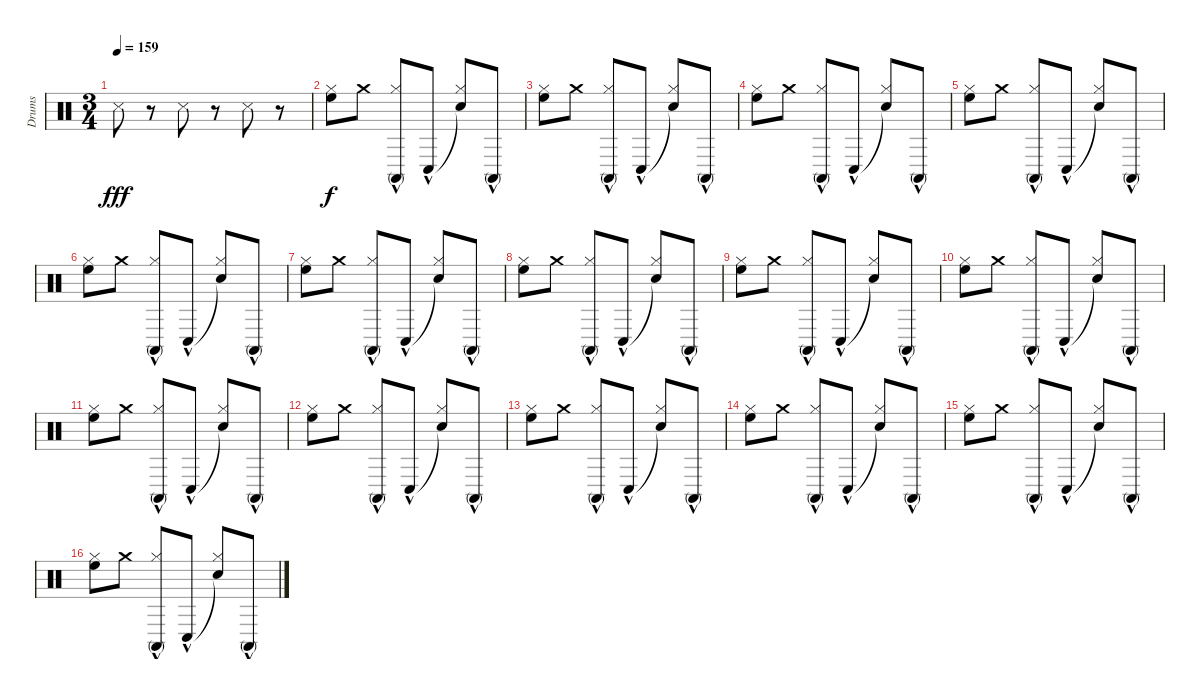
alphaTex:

\track ("Drums" "Drums") {instrument percussion}
\staff {score}
\articulation defaults
\ts (3 4)
\tempo 159
\clef neutral
\ks c "Snare (side stick) 3".8{dy fff}
r.8 "Snare (side stick) 3".8 r.8 "Snare (side stick) 3".8 r.8 |
("High Floor Tom (hit)" "Hi-Hat (closed)").8{dy f} "Crash medium (hit)".8 ("Conga high (mute)"{hac} "Hi-Hat (closed)").8 "Conga low (hit)"{hac}.8 ("Snare (hit)"{t} "Hi-Hat (closed)").8 "Conga high (mute)"{hac}.8 |
("High Floor Tom (hit)" "Hi-Hat (closed)").8 "Crash medium (hit)".8 ("Conga high (mute)"{hac} "Hi-Hat (closed)").8 "Conga low (hit)"{hac}.8 ("Snare (hit)"{t} "Hi-Hat (closed)").8 "Conga high (mute)"{hac}.8 |
("High Floor Tom (hit)" "Hi-Hat (closed)").8 "Crash medium (hit)".8 ("Conga high (mute)"{hac} "Hi-Hat (closed)").8 "Conga low (hit)"{hac}.8 ("Snare (hit)"{t} "Hi-Hat (closed)").8 "Conga high (mute)"{hac}.8 |
("High Floor Tom (hit)" "Hi-Hat (closed)").8 "Crash medium (hit)".8 ("Conga high (mute)"{hac} "Hi-Hat (closed)").8 "Conga low (hit)"{hac}.8 ("Snare (hit)"{t} "Hi-Hat (closed)").8 "Conga high (mute)"{hac}.8 |
("High Floor Tom (hit)" "Hi-Hat (closed)").8 "Crash medium (hit)".8 ("Conga high (mute)"{hac} "Hi-Hat (closed)").8 "Conga low (hit)"{hac}.8 ("Snare (hit)"{t} "Hi-Hat (closed)").8 "Conga high (mute)"{hac}.8 |
("High Floor Tom (hit)" "Hi-Hat (closed)").8 "Crash medium (hit)".8 ("Conga high (mute)"{hac} "Hi-Hat (closed)").8 "Conga low (hit)"{hac}.8 ("Snare (hit)"{t} "Hi-Hat (closed)").8 "Conga high (mute)"{hac}.8 |
("High Floor Tom (hit)" "Hi-Hat (closed)").8 "Crash medium (hit)".8 ("Conga high (mute)"{hac} "Hi-Hat (closed)").8 "Conga low (hit)"{hac}.8 ("Snare (hit)"{t} "Hi-Hat (closed)").8 "Conga high (mute)"{hac}.8 |
("High Floor Tom (hit)" "Hi-Hat (closed)").8 "Crash medium (hit)".8 ("Conga high (mute)"{hac} "Hi-Hat (closed)").8 "Conga low (hit)"{hac}.8 ("Snare (hit)"{t} "Hi-Hat (closed)").8 "Conga high (mute)"{hac}.8 |
("High Floor Tom (hit)" "Hi-Hat (closed)").8 "Crash medium (hit)".8 ("Conga high (mute)"{hac} "Hi-Hat (closed)").8 "Conga low (hit)"{hac}.8 ("Snare (hit)"{t} "Hi-Hat (closed)").8 "Conga high (mute)"{hac}.8 |
("High Floor Tom (hit)" "Hi-Hat (closed)").8 "Crash medium (hit)".8 ("Conga high (mute)"{hac} "Hi-Hat (closed)").8 "Conga low (hit)"{hac}.8 ("Snare (hit)"{t} "Hi-Hat (closed)").8 "Conga high (mute)"{hac}.8 |
("High Floor Tom (hit)" "Hi-Hat (closed)").8 "Crash medium (hit)".8 ("Conga high (mute)"{hac} "Hi-Hat (closed)").8 "Conga low (hit)"{hac}.8 ("Snare (hit)"{t} "Hi-Hat (closed)").8 "Conga high (mute)"{hac}.8 |
("High Floor Tom (hit)" "Hi-Hat (closed)").8 "Crash medium (hit)".8 ("Conga high (mute)"{hac} "Hi-Hat (closed)").8 "Conga low (hit)"{hac}.8 ("Snare (hit)"{t} "Hi-Hat (closed)").8 "Conga high (mute)"{hac}.8 |
("High Floor Tom (hit)" "Hi-Hat (closed)").8 "Crash medium (hit)".8 ("Conga high (mute)"{hac} "Hi-Hat (closed)").8 "Conga low (hit)"{hac}.8 ("Snare (hit)"{t} "Hi-Hat (closed)").8 "Conga high (mute)"{hac}.8 |
("High Floor Tom (hit)" "Hi-Hat (closed)").8 "Crash medium (hit)".8 ("Conga high (mute)"{hac} "Hi-Hat (closed)").8 "Conga low (hit)"{hac}.8 ("Snare (hit)"{t} "Hi-Hat (closed)").8 "Conga high (mute)"{hac}.8 |
("High Floor Tom (hit)" "Hi-Hat (closed)").8 "Crash medium (hit)".8 ("Conga high (mute)"{hac} "Hi-Hat (closed)").8 "Conga low (hit)"{hac}.8 ("Snare (hit)"{t} "Hi-Hat (closed)").8 "Conga high (mute)"{hac}.8
